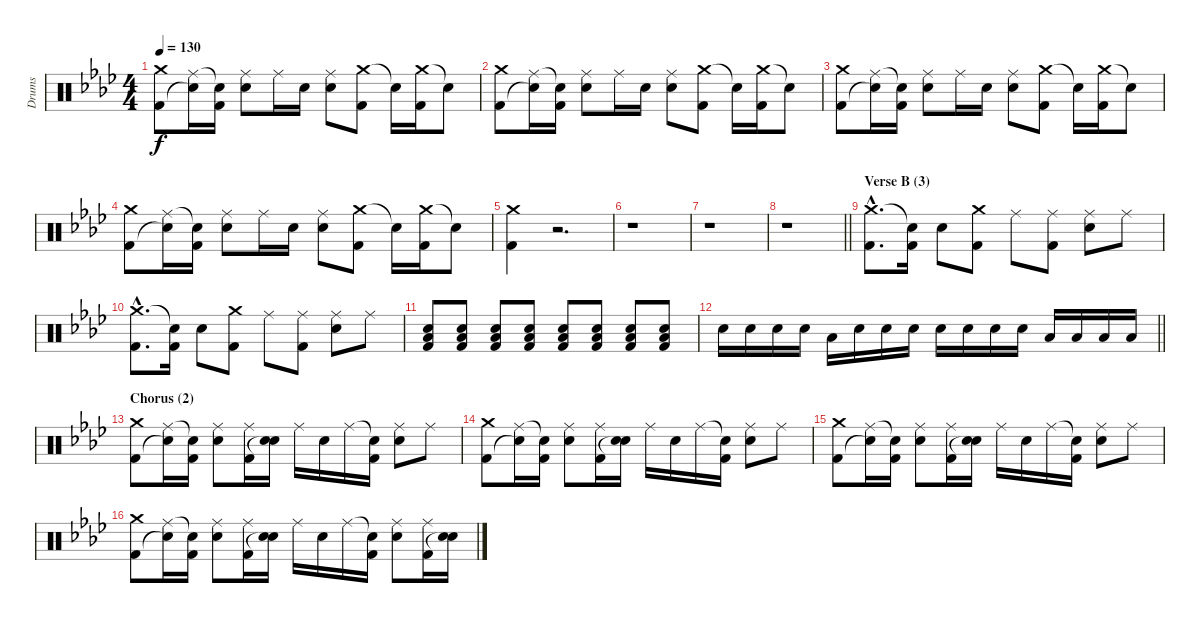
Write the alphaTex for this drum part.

\track ("Drums" "Drums") {instrument percussion}
\staff {score}
\articulation defaults
\ts (4 4)
\tempo 130
\clef neutral
\ks fminor
("Crash medium (hit)" "Kick (hit) 2").8{dy f} ("Ride (middle)" "Snare (hit)"{t}).16 ("Snare (hit)"{t} "Kick (hit) 2").16 ("Ride (middle)" "Electric Snare (hit)").8 "Ride (middle)".16 "Electric Snare (hit)".16 ("Ride (middle)" "Electric Snare (hit)").8 ("Crash medium (hit)" "Kick (hit) 2").8 "Snare (hit)"{t}.16 ("Crash medium (hit)" "Kick (hit) 2").16 "Snare (hit)"{t}.8 |
("Crash medium (hit)" "Kick (hit) 2").8 ("Ride (middle)" "Snare (hit)"{t}).16 ("Snare (hit)"{t} "Kick (hit) 2").16 ("Ride (middle)" "Electric Snare (hit)").8 "Ride (middle)".16 "Electric Snare (hit)".16 ("Ride (middle)" "Electric Snare (hit)").8 ("Crash medium (hit)" "Kick (hit) 2").8 "Snare (hit)"{t}.16 ("Crash medium (hit)" "Kick (hit) 2").16 "Snare (hit)"{t}.8 |
("Crash medium (hit)" "Kick (hit) 2").8 ("Ride (middle)" "Snare (hit)"{t}).16 ("Snare (hit)"{t} "Kick (hit) 2").16 ("Ride (middle)" "Electric Snare (hit)").8 "Ride (middle)".16 "Electric Snare (hit)".16 ("Ride (middle)" "Electric Snare (hit)").8 ("Crash medium (hit)" "Kick (hit) 2").8 "Snare (hit)"{t}.16 ("Crash medium (hit)" "Kick (hit) 2").16 "Snare (hit)"{t}.8 |
("Crash medium (hit)" "Kick (hit) 2").8 ("Ride (middle)" "Snare (hit)"{t}).16 ("Snare (hit)"{t} "Kick (hit) 2").16 ("Ride (middle)" "Electric Snare (hit)").8 "Ride (middle)".16 "Electric Snare (hit)".16 ("Ride (middle)" "Electric Snare (hit)").8 ("Crash medium (hit)" "Kick (hit) 2").8 "Snare (hit)"{t}.16 ("Crash medium (hit)" "Kick (hit) 2").16 "Snare (hit)"{t}.8 |
("Crash medium (hit)" "Kick (hit) 2").4 r.2{d} |
r.1 |
r.1 |
\barLineRight lightlight
r.1 |
\section ("" "Verse B (3)")
("Crash medium (hit)"{hac} "Kick (hit) 2"{hac}).8{d} ("Snare (hit)"{t} "Kick (hit) 2").16 "Electric Snare (hit)".8 ("Crash medium (hit)" "Kick (hit) 2").8 "Ride (middle)".8 ("Ride (middle)" "Kick (hit) 2").8 ("Ride (middle)" "Electric Snare (hit)").8 "Ride (middle)".8 |
("Crash medium (hit)"{hac} "Kick (hit) 2"{hac}).8{d} ("Snare (hit)"{t} "Kick (hit) 2").16 "Electric Snare (hit)".8 ("Crash medium (hit)" "Kick (hit) 2").8 "Ride (middle)".8 ("Ride (middle)" "Kick (hit) 2").8 ("Ride (middle)" "Electric Snare (hit)").8 "Ride (middle)".8 |
("Electric Snare (hit)" "Low Floor Tom (hit)" "Kick (hit) 2").8 ("Electric Snare (hit)" "Low Floor Tom (hit)" "Kick (hit) 2").8 ("Electric Snare (hit)" "Low Floor Tom (hit)" "Kick (hit) 2").8 ("Electric Snare (hit)" "Low Floor Tom (hit)" "Kick (hit) 2").8 ("Electric Snare (hit)" "Low Floor Tom (hit)" "Kick (hit) 2").8 ("Electric Snare (hit)" "Low Floor Tom (hit)" "Kick (hit) 2").8 ("Electric Snare (hit)" "Low Floor Tom (hit)" "Kick (hit) 2").8 ("Electric Snare (hit)" "Low Floor Tom (hit)" "Kick (hit) 2").8 |
\barLineRight lightlight "Electric Snare (hit)".16 "Electric Snare (hit)".16 "Electric Snare (hit)".16 "Electric Snare (hit)".16 "Low Floor Tom (hit)".16 "Electric Snare (hit)".16 "Electric Snare (hit)".16 "Electric Snare (hit)".16 "Electric Snare (hit)".16 "Electric Snare (hit)".16 "Electric Snare (hit)".16 "Electric Snare (hit)".16 "Low Floor Tom (hit)".16 "Low Floor Tom (hit)".16 "Low Floor Tom (hit)".16 "Low Floor Tom (hit)".16
|
\section ("" "Chorus (2)")
("Crash medium (hit)" "Kick (hit) 2").8 ("Ride (middle)" "Snare (hit)"{t}).16 ("Snare (hit)"{t} "Kick (hit) 2").16 ("Ride (middle)" "Electric Snare (hit)").8 ("Ride (middle)" "Kick (hit) 2").16 ("Electric Snare (hit)" "Snare (hit)"{t}).16 "Ride (middle)".16 "Electric Snare (hit)".16 "Ride (middle)".16 ("Snare (hit)"{t} "Kick (hit) 2").16 ("Ride (middle)" "Electric Snare (hit)").8 "Ride (middle)".8 |
("Crash medium (hit)" "Kick (hit) 2").8 ("Ride (middle)" "Snare (hit)"{t}).16 ("Snare (hit)"{t} "Kick (hit) 2").16 ("Ride (middle)" "Electric Snare (hit)").8 ("Ride (middle)" "Kick (hit) 2").16 ("Electric Snare (hit)" "Snare (hit)"{t}).16 "Ride (middle)".16 "Electric Snare (hit)".16 "Ride (middle)".16 ("Snare (hit)"{t} "Kick (hit) 2").16 ("Ride (middle)" "Electric Snare (hit)").8 "Ride (middle)".8 |
("Crash medium (hit)" "Kick (hit) 2").8 ("Ride (middle)" "Snare (hit)"{t}).16 ("Snare (hit)"{t} "Kick (hit) 2").16 ("Ride (middle)" "Electric Snare (hit)").8 ("Ride (middle)" "Kick (hit) 2").16 ("Electric Snare (hit)" "Snare (hit)"{t}).16 "Ride (middle)".16 "Electric Snare (hit)".16 "Ride (middle)".16 ("Snare (hit)"{t} "Kick (hit) 2").16 ("Ride (middle)" "Electric Snare (hit)").8 "Ride (middle)".8 |
("Crash medium (hit)" "Kick (hit) 2").8 ("Ride (middle)" "Snare (hit)"{t}).16 ("Snare (hit)"{t} "Kick (hit) 2").16 ("Ride (middle)" "Electric Snare (hit)").8 ("Ride (middle)" "Kick (hit) 2").16 ("Electric Snare (hit)" "Snare (hit)"{t}).16 "Ride (middle)".16 "Electric Snare (hit)".16 "Ride (middle)".16 ("Snare (hit)"{t} "Kick (hit) 2").16 ("Ride (middle)" "Electric Snare (hit)").8 ("Ride (middle)" "Kick (hit) 2").16 ("Electric Snare (hit)" "Snare (hit)"{t}).16
